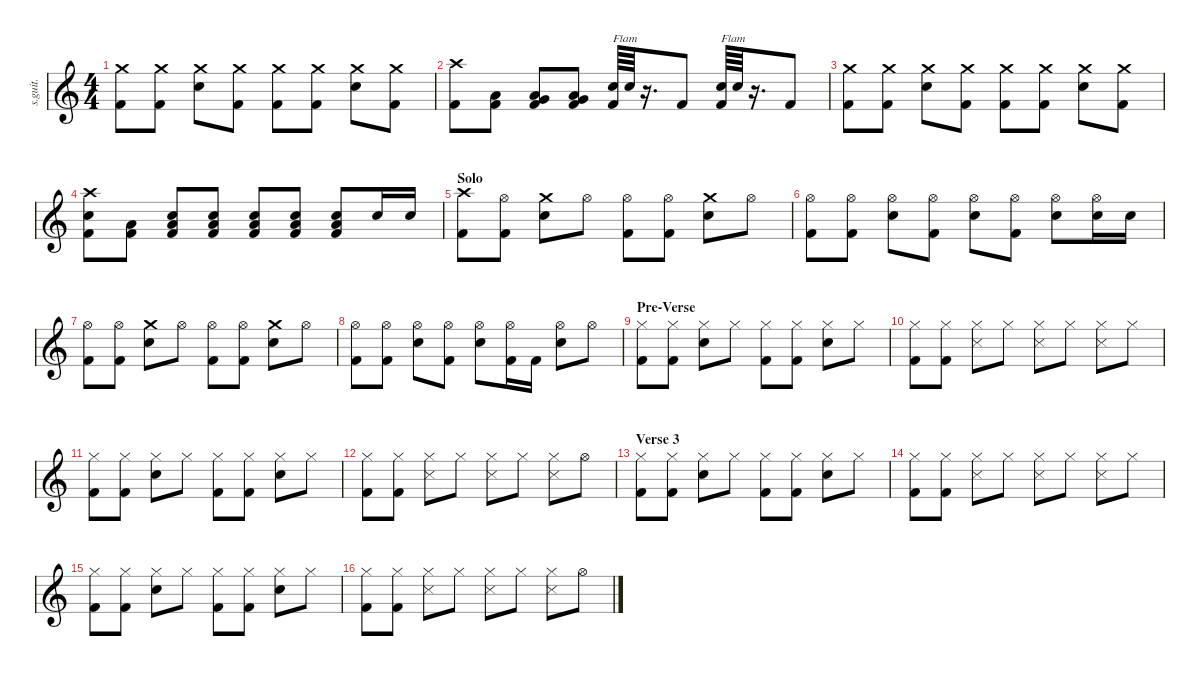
\defaultSystemsLayout 4
\hideDynamics
\bracketExtendMode nobrackets
\track ("Dave Grohl - Drums" "s.guit.") {instrument percussion}
\staff {score}
\articulation defaults
\ts (4 4)
\tempo (100 hide)
\clef g2
\ks c
("Crash medium (hit)" "Kick (hit) 2").8{lyrics (0 "") lyrics (1 "") lyrics (2 "") lyrics (3 "") lyrics (4 "") dy ff} ("Crash medium (hit)" "Kick (hit) 2").8{lyrics (0 "") lyrics (1 "") lyrics (2 "") lyrics (3 "") lyrics (4 "")} ("Snare (hit) 2" "Crash medium (hit)").8{lyrics (0 "") lyrics (1 "") lyrics (2 "") lyrics (3 "") lyrics (4 "")} ("Crash medium (hit)" "Kick (hit) 2").8{lyrics (0 "") lyrics (1 "") lyrics (2 "") lyrics (3 "") lyrics (4 "")} ("Crash medium (hit)" "Kick (hit) 2").8{lyrics (0 "") lyrics (1 "") lyrics (2 "") lyrics (3 "") lyrics (4 "")} ("Crash medium (hit)" "Kick (hit) 2").8{lyrics (0 "") lyrics (1 "") lyrics (2 "") lyrics (3 "") lyrics (4 "")} ("Snare (hit) 2" "Crash medium (hit)").8{lyrics (0 "") lyrics (1 "") lyrics (2 "") lyrics (3 "") lyrics (4 "")} ("Crash medium (hit)" "Kick (hit) 2").8{lyrics (0 "") lyrics (1 "") lyrics (2 "") lyrics (3 "") lyrics (4 "")} |
("Kick (hit) 2" "Crash high (hit)").8{lyrics (0 "") lyrics (1 "") lyrics (2 "") lyrics (3 "") lyrics (4 "")} ("Low Tom (hit)" "Kick (hit) 2").8{lyrics (0 "") lyrics (1 "") lyrics (2 "") lyrics (3 "") lyrics (4 "")} ("Low Tom (hit)" "Kick (hit) 2" "Very Low Tom (hit)").8{lyrics (0 "") lyrics (1 "") lyrics (2 "") lyrics (3 "") lyrics (4 "") dy fff} ("Low Tom (hit)" "Kick (hit) 2" "Very Low Tom (hit)").8{lyrics (0 "") lyrics (1 "") lyrics (2 "") lyrics (3 "") lyrics (4 "")} ("Snare (hit) 2" "Kick (hit) 2").64{txt "Flam" lyrics (0 "") lyrics (1 "") lyrics (2 "") lyrics (3 "") lyrics (4 "") dy ff} "Snare (hit) 2".64{lyrics (0 "") lyrics (1 "") lyrics (2 "") lyrics (3 "") lyrics (4 "")} r.16{d} "Kick (hit) 2".8{lyrics (0 "") lyrics (1 "") lyrics (2 "") lyrics (3 "") lyrics (4 "")} ("Snare (hit) 2" "Kick (hit) 2").64{txt "Flam" lyrics (0 "") lyrics (1 "") lyrics (2 "") lyrics (3 "") lyrics (4 "")} "Snare (hit) 2".64{lyrics (0 "") lyrics (1 "") lyrics (2 "") lyrics (3 "") lyrics (4 "")} r.16{d} "Kick (hit) 2".8{lyrics (0 "") lyrics (1 "") lyrics (2 "") lyrics (3 "") lyrics (4 "")} |
("Crash medium (hit)" "Kick (hit) 2").8{lyrics (0 "") lyrics (1 "") lyrics (2 "") lyrics (3 "") lyrics (4 "")} ("Crash medium (hit)" "Kick (hit) 2").8{lyrics (0 "") lyrics (1 "") lyrics (2 "") lyrics (3 "") lyrics (4 "")} ("Snare (hit) 2" "Crash medium (hit)").8{lyrics (0 "") lyrics (1 "") lyrics (2 "") lyrics (3 "") lyrics (4 "")} ("Crash medium (hit)" "Kick (hit) 2").8{lyrics (0 "") lyrics (1 "") lyrics (2 "") lyrics (3 "") lyrics (4 "")} ("Crash medium (hit)" "Kick (hit) 2").8{lyrics (0 "") lyrics (1 "") lyrics (2 "") lyrics (3 "") lyrics (4 "")} ("Crash medium (hit)" "Kick (hit) 2").8{lyrics (0 "") lyrics (1 "") lyrics (2 "") lyrics (3 "") lyrics (4 "")} ("Snare (hit) 2" "Crash medium (hit)").8{lyrics (0 "") lyrics (1 "") lyrics (2 "") lyrics (3 "") lyrics (4 "")} ("Crash medium (hit)" "Kick (hit) 2").8{lyrics (0 "") lyrics (1 "") lyrics (2 "") lyrics (3 "") lyrics (4 "")} |
("Snare (hit) 2" "Kick (hit) 2" "Crash high (hit)").8{lyrics (0 "") lyrics (1 "") lyrics (2 "") lyrics (3 "") lyrics (4 "")} ("Low Tom (hit)" "Kick (hit) 2").8{lyrics (0 "") lyrics (1 "") lyrics (2 "") lyrics (3 "") lyrics (4 "") dy p} ("Low Tom (hit)" "Kick (hit) 2" "Snare (hit) 2").8{lyrics (0 "") lyrics (1 "") lyrics (2 "") lyrics (3 "") lyrics (4 "") dy mp} ("Low Tom (hit)" "Kick (hit) 2" "Snare (hit) 2").8{lyrics (0 "") lyrics (1 "") lyrics (2 "") lyrics (3 "") lyrics (4 "") dy mf} ("Low Tom (hit)" "Kick (hit) 2" "Snare (hit) 2").8{lyrics (0 "") lyrics (1 "") lyrics (2 "") lyrics (3 "") lyrics (4 "") dy f} ("Low Tom (hit)" "Kick (hit) 2" "Snare (hit) 2").8{lyrics (0 "") lyrics (1 "") lyrics (2 "") lyrics (3 "") lyrics (4 "") dy ff} ("Low Tom (hit)" "Kick (hit) 2" "Snare (hit) 2").8{lyrics (0 "") lyrics (1 "") lyrics (2 "") lyrics (3 "") lyrics (4 "") dy fff} "Snare (hit) 2".16{lyrics (0 "") lyrics (1 "") lyrics (2 "") lyrics (3 "") lyrics (4 "")} "Snare (hit) 2".16{lyrics (0 "") lyrics (1 "") lyrics (2 "") lyrics (3 "") lyrics (4 "")} |
\section ("" "Solo")
("Kick (hit) 2" "Crash high (hit)").8{lyrics (0 "") lyrics (1 "") lyrics (2 "") lyrics (3 "") lyrics (4 "") dy ff} ("Kick (hit) 2" "Hi-Hat (open)").8{lyrics (0 "") lyrics (1 "") lyrics (2 "") lyrics (3 "") lyrics (4 "")} ("Snare (hit) 2" "Crash medium (hit)").8{lyrics (0 "") lyrics (1 "") lyrics (2 "") lyrics (3 "") lyrics (4 "")} "Hi-Hat (open)".8{lyrics (0 "") lyrics (1 "") lyrics (2 "") lyrics (3 "") lyrics (4 "")} ("Hi-Hat (open)" "Kick (hit) 2").8{lyrics (0 "") lyrics (1 "") lyrics (2 "") lyrics (3 "") lyrics (4 "")} ("Hi-Hat (open)" "Kick (hit) 2").8{lyrics (0 "") lyrics (1 "") lyrics (2 "") lyrics (3 "") lyrics (4 "")} ("Snare (hit) 2" "Crash medium (hit)").8{lyrics (0 "") lyrics (1 "") lyrics (2 "") lyrics (3 "") lyrics (4 "")} "Hi-Hat (open)".8{lyrics (0 "") lyrics (1 "") lyrics (2 "") lyrics (3 "") lyrics (4 "")} |
("Kick (hit) 2" "Hi-Hat (open)").8{lyrics (0 "") lyrics (1 "") lyrics (2 "") lyrics (3 "") lyrics (4 "")} ("Kick (hit) 2" "Hi-Hat (open)").8{lyrics (0 "") lyrics (1 "") lyrics (2 "") lyrics (3 "") lyrics (4 "")} ("Snare (hit) 2" "Hi-Hat (open)").8{lyrics (0 "") lyrics (1 "") lyrics (2 "") lyrics (3 "") lyrics (4 "")} ("Hi-Hat (open)" "Kick (hit) 2").8{lyrics (0 "") lyrics (1 "") lyrics (2 "") lyrics (3 "") lyrics (4 "")} ("Snare (hit) 2" "Hi-Hat (open)").8{lyrics (0 "") lyrics (1 "") lyrics (2 "") lyrics (3 "") lyrics (4 "")} ("Hi-Hat (open)" "Kick (hit) 2").8{lyrics (0 "") lyrics (1 "") lyrics (2 "") lyrics (3 "") lyrics (4 "")} ("Snare (hit) 2" "Hi-Hat (open)").8{lyrics (0 "") lyrics (1 "") lyrics (2 "") lyrics (3 "") lyrics (4 "")} ("Snare (hit) 2" "Hi-Hat (open)").16{lyrics (0 "") lyrics (1 "") lyrics (2 "") lyrics (3 "") lyrics (4 "")} "Snare (hit) 2".16{lyrics (0 "") lyrics (1 "") lyrics (2 "") lyrics (3 "") lyrics (4 "")} |
("Kick (hit) 2" "Hi-Hat (open)").8{lyrics (0 "") lyrics (1 "") lyrics (2 "") lyrics (3 "") lyrics (4 "")} ("Kick (hit) 2" "Hi-Hat (open)").8{lyrics (0 "") lyrics (1 "") lyrics (2 "") lyrics (3 "") lyrics (4 "")} ("Snare (hit) 2" "Crash medium (hit)").8{lyrics (0 "") lyrics (1 "") lyrics (2 "") lyrics (3 "") lyrics (4 "")} "Hi-Hat (open)".8{lyrics (0 "") lyrics (1 "") lyrics (2 "") lyrics (3 "") lyrics (4 "")} ("Hi-Hat (open)" "Kick (hit) 2").8{lyrics (0 "") lyrics (1 "") lyrics (2 "") lyrics (3 "") lyrics (4 "")} ("Hi-Hat (open)" "Kick (hit) 2").8{lyrics (0 "") lyrics (1 "") lyrics (2 "") lyrics (3 "") lyrics (4 "")} ("Snare (hit) 2" "Crash medium (hit)").8{lyrics (0 "") lyrics (1 "") lyrics (2 "") lyrics (3 "") lyrics (4 "")} "Hi-Hat (open)".8{lyrics (0 "") lyrics (1 "") lyrics (2 "") lyrics (3 "") lyrics (4 "")} |
("Kick (hit) 2" "Hi-Hat (open)").8{lyrics (0 "") lyrics (1 "") lyrics (2 "") lyrics (3 "") lyrics (4 "")} ("Kick (hit) 2" "Hi-Hat (open)").8{lyrics (0 "") lyrics (1 "") lyrics (2 "") lyrics (3 "") lyrics (4 "")} ("Snare (hit) 2" "Hi-Hat (open)").8{lyrics (0 "") lyrics (1 "") lyrics (2 "") lyrics (3 "") lyrics (4 "")} ("Hi-Hat (open)" "Kick (hit) 2").8{lyrics (0 "") lyrics (1 "") lyrics (2 "") lyrics (3 "") lyrics (4 "")} ("Snare (hit) 2" "Hi-Hat (open)").8{lyrics (0 "") lyrics (1 "") lyrics (2 "") lyrics (3 "") lyrics (4 "")} ("Hi-Hat (open)" "Kick (hit) 2").16{lyrics (0 "") lyrics (1 "") lyrics (2 "") lyrics (3 "") lyrics (4 "")} "Kick (hit) 2".16{lyrics (0 "") lyrics (1 "") lyrics (2 "") lyrics (3 "") lyrics (4 "")} ("Snare (hit) 2" "Hi-Hat (open)").8{lyrics (0 "") lyrics (1 "") lyrics (2 "") lyrics (3 "") lyrics (4 "")} "Hi-Hat (open)".8{lyrics (0 "") lyrics (1 "") lyrics (2 "") lyrics (3 "") lyrics (4 "")} |
\section ("" "Pre-Verse")
("Hi-Hat (closed)" "Kick (hit) 2").8{lyrics (0 "") lyrics (1 "") lyrics (2 "") lyrics (3 "") lyrics (4 "") dy mf} ("Hi-Hat (closed)" "Kick (hit) 2").8{lyrics (0 "") lyrics (1 "") lyrics (2 "") lyrics (3 "") lyrics (4 "")} ("Hi-Hat (closed)" "Snare (hit) 2").8{lyrics (0 "") lyrics (1 "") lyrics (2 "") lyrics (3 "") lyrics (4 "")} "Hi-Hat (closed)".8{lyrics (0 "") lyrics (1 "") lyrics (2 "") lyrics (3 "") lyrics (4 "")} ("Hi-Hat (closed)" "Kick (hit) 2").8{lyrics (0 "") lyrics (1 "") lyrics (2 "") lyrics (3 "") lyrics (4 "")} ("Hi-Hat (closed)" "Kick (hit) 2").8{lyrics (0 "") lyrics (1 "") lyrics (2 "") lyrics (3 "") lyrics (4 "")} ("Snare (hit) 2" "Hi-Hat (closed)").8{lyrics (0 "") lyrics (1 "") lyrics (2 "") lyrics (3 "") lyrics (4 "")} "Hi-Hat (closed)".8{lyrics (0 "") lyrics (1 "") lyrics (2 "") lyrics (3 "") lyrics (4 "")} |
("Hi-Hat (closed)" "Kick (hit) 2").8{lyrics (0 "") lyrics (1 "") lyrics (2 "") lyrics (3 "") lyrics (4 "")} ("Hi-Hat (closed)" "Kick (hit) 2").8{lyrics (0 "") lyrics (1 "") lyrics (2 "") lyrics (3 "") lyrics (4 "")} ("Hi-Hat (closed)" "Snare (side stick) 3").8{lyrics (0 "") lyrics (1 "") lyrics (2 "") lyrics (3 "") lyrics (4 "")} "Hi-Hat (closed)".8{lyrics (0 "") lyrics (1 "") lyrics (2 "") lyrics (3 "") lyrics (4 "")} ("Hi-Hat (closed)" "Snare (side stick) 3").8{lyrics (0 "") lyrics (1 "") lyrics (2 "") lyrics (3 "") lyrics (4 "")} "Hi-Hat (closed)".8{lyrics (0 "") lyrics (1 "") lyrics (2 "") lyrics (3 "") lyrics (4 "")} ("Hi-Hat (closed)" "Snare (side stick) 3").8{lyrics (0 "") lyrics (1 "") lyrics (2 "") lyrics (3 "") lyrics (4 "")} "Hi-Hat (closed)".8{lyrics (0 "") lyrics (1 "") lyrics (2 "") lyrics (3 "") lyrics (4 "")} |
("Hi-Hat (closed)" "Kick (hit) 2").8{lyrics (0 "") lyrics (1 "") lyrics (2 "") lyrics (3 "") lyrics (4 "")} ("Hi-Hat (closed)" "Kick (hit) 2").8{lyrics (0 "") lyrics (1 "") lyrics (2 "") lyrics (3 "") lyrics (4 "")} ("Hi-Hat (closed)" "Snare (hit) 2").8{lyrics (0 "") lyrics (1 "") lyrics (2 "") lyrics (3 "") lyrics (4 "")} "Hi-Hat (closed)".8{lyrics (0 "") lyrics (1 "") lyrics (2 "") lyrics (3 "") lyrics (4 "")} ("Hi-Hat (closed)" "Kick (hit) 2").8{lyrics (0 "") lyrics (1 "") lyrics (2 "") lyrics (3 "") lyrics (4 "")} ("Hi-Hat (closed)" "Kick (hit) 2").8{lyrics (0 "") lyrics (1 "") lyrics (2 "") lyrics (3 "") lyrics (4 "")} ("Snare (hit) 2" "Hi-Hat (closed)").8{lyrics (0 "") lyrics (1 "") lyrics (2 "") lyrics (3 "") lyrics (4 "")} "Hi-Hat (closed)".8{lyrics (0 "") lyrics (1 "") lyrics (2 "") lyrics (3 "") lyrics (4 "")} |
("Hi-Hat (closed)" "Kick (hit) 2").8{lyrics (0 "") lyrics (1 "") lyrics (2 "") lyrics (3 "") lyrics (4 "")} ("Hi-Hat (closed)" "Kick (hit) 2").8{lyrics (0 "") lyrics (1 "") lyrics (2 "") lyrics (3 "") lyrics (4 "")} ("Hi-Hat (closed)" "Snare (side stick) 3").8{lyrics (0 "") lyrics (1 "") lyrics (2 "") lyrics (3 "") lyrics (4 "")} "Hi-Hat (closed)".8{lyrics (0 "") lyrics (1 "") lyrics (2 "") lyrics (3 "") lyrics (4 "")} ("Hi-Hat (closed)" "Snare (side stick) 3").8{lyrics (0 "") lyrics (1 "") lyrics (2 "") lyrics (3 "") lyrics (4 "")} "Hi-Hat (closed)".8{lyrics (0 "") lyrics (1 "") lyrics (2 "") lyrics (3 "") lyrics (4 "")} ("Hi-Hat (closed)" "Snare (side stick) 3").8{lyrics (0 "") lyrics (1 "") lyrics (2 "") lyrics (3 "") lyrics (4 "")} "Hi-Hat (open)".8{lyrics (0 "") lyrics (1 "") lyrics (2 "") lyrics (3 "") lyrics (4 "")} |
\section ("" "Verse 3")
("Hi-Hat (closed)" "Kick (hit) 2").8{lyrics (0 "") lyrics (1 "") lyrics (2 "") lyrics (3 "") lyrics (4 "")} ("Hi-Hat (closed)" "Kick (hit) 2").8{lyrics (0 "") lyrics (1 "") lyrics (2 "") lyrics (3 "") lyrics (4 "")} ("Hi-Hat (closed)" "Snare (hit) 2").8{lyrics (0 "") lyrics (1 "") lyrics (2 "") lyrics (3 "") lyrics (4 "")} "Hi-Hat (closed)".8{lyrics (0 "") lyrics (1 "") lyrics (2 "") lyrics (3 "") lyrics (4 "")} ("Hi-Hat (closed)" "Kick (hit) 2").8{lyrics (0 "") lyrics (1 "") lyrics (2 "") lyrics (3 "") lyrics (4 "")} ("Hi-Hat (closed)" "Kick (hit) 2").8{lyrics (0 "") lyrics (1 "") lyrics (2 "") lyrics (3 "") lyrics (4 "")} ("Snare (hit) 2" "Hi-Hat (closed)").8{lyrics (0 "") lyrics (1 "") lyrics (2 "") lyrics (3 "") lyrics (4 "")} "Hi-Hat (closed)".8{lyrics (0 "") lyrics (1 "") lyrics (2 "") lyrics (3 "") lyrics (4 "")} |
("Hi-Hat (closed)" "Kick (hit) 2").8{lyrics (0 "") lyrics (1 "") lyrics (2 "") lyrics (3 "") lyrics (4 "")} ("Hi-Hat (closed)" "Kick (hit) 2").8{lyrics (0 "") lyrics (1 "") lyrics (2 "") lyrics (3 "") lyrics (4 "")} ("Hi-Hat (closed)" "Snare (side stick) 3").8{lyrics (0 "") lyrics (1 "") lyrics (2 "") lyrics (3 "") lyrics (4 "")} "Hi-Hat (closed)".8{lyrics (0 "") lyrics (1 "") lyrics (2 "") lyrics (3 "") lyrics (4 "")} ("Hi-Hat (closed)" "Snare (side stick) 3").8{lyrics (0 "") lyrics (1 "") lyrics (2 "") lyrics (3 "") lyrics (4 "")} "Hi-Hat (closed)".8{lyrics (0 "") lyrics (1 "") lyrics (2 "") lyrics (3 "") lyrics (4 "")} ("Hi-Hat (closed)" "Snare (side stick) 3").8{lyrics (0 "") lyrics (1 "") lyrics (2 "") lyrics (3 "") lyrics (4 "")} "Hi-Hat (closed)".8{lyrics (0 "") lyrics (1 "") lyrics (2 "") lyrics (3 "") lyrics (4 "")} |
("Hi-Hat (closed)" "Kick (hit) 2").8{lyrics (0 "") lyrics (1 "") lyrics (2 "") lyrics (3 "") lyrics (4 "")} ("Hi-Hat (closed)" "Kick (hit) 2").8{lyrics (0 "") lyrics (1 "") lyrics (2 "") lyrics (3 "") lyrics (4 "")} ("Hi-Hat (closed)" "Snare (hit) 2").8{lyrics (0 "") lyrics (1 "") lyrics (2 "") lyrics (3 "") lyrics (4 "")} "Hi-Hat (closed)".8{lyrics (0 "") lyrics (1 "") lyrics (2 "") lyrics (3 "") lyrics (4 "")} ("Hi-Hat (closed)" "Kick (hit) 2").8{lyrics (0 "") lyrics (1 "") lyrics (2 "") lyrics (3 "") lyrics (4 "")} ("Hi-Hat (closed)" "Kick (hit) 2").8{lyrics (0 "") lyrics (1 "") lyrics (2 "") lyrics (3 "") lyrics (4 "")} ("Snare (hit) 2" "Hi-Hat (closed)").8{lyrics (0 "") lyrics (1 "") lyrics (2 "") lyrics (3 "") lyrics (4 "")} "Hi-Hat (closed)".8{lyrics (0 "") lyrics (1 "") lyrics (2 "") lyrics (3 "") lyrics (4 "")} |
("Hi-Hat (closed)" "Kick (hit) 2").8{lyrics (0 "") lyrics (1 "") lyrics (2 "") lyrics (3 "") lyrics (4 "")} ("Hi-Hat (closed)" "Kick (hit) 2").8{lyrics (0 "") lyrics (1 "") lyrics (2 "") lyrics (3 "") lyrics (4 "")} ("Hi-Hat (closed)" "Snare (side stick) 3").8{lyrics (0 "") lyrics (1 "") lyrics (2 "") lyrics (3 "") lyrics (4 "")} "Hi-Hat (closed)".8{lyrics (0 "") lyrics (1 "") lyrics (2 "") lyrics (3 "") lyrics (4 "")} ("Hi-Hat (closed)" "Snare (side stick) 3").8{lyrics (0 "") lyrics (1 "") lyrics (2 "") lyrics (3 "") lyrics (4 "")} "Hi-Hat (closed)".8{lyrics (0 "") lyrics (1 "") lyrics (2 "") lyrics (3 "") lyrics (4 "")} ("Hi-Hat (closed)" "Snare (side stick) 3").8{lyrics (0 "") lyrics (1 "") lyrics (2 "") lyrics (3 "") lyrics (4 "")} "Hi-Hat (open)".8{lyrics (0 "") lyrics (1 "") lyrics (2 "") lyrics (3 "") lyrics (4 "")}
